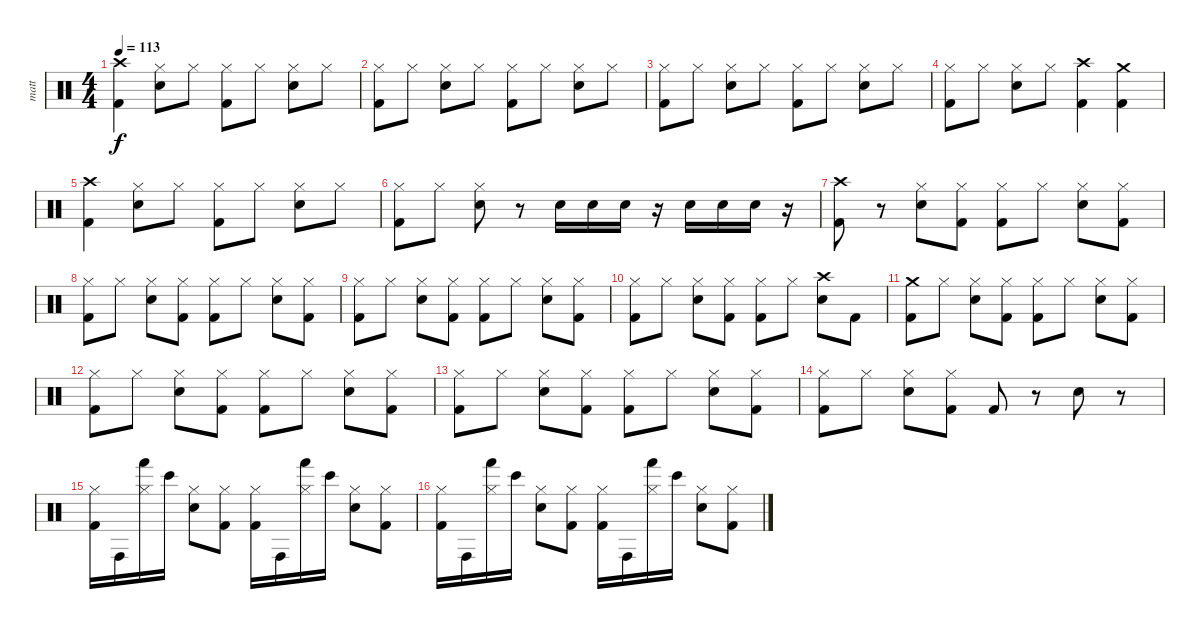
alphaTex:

\track ("matt" "matt") {instrument percussion}
\staff {score}
\articulation defaults
\ts (4 4)
\tempo 113
\clef neutral
\ks c
("Crash high (hit)" "Kick (hit) 2").4{dy f} ("Hi-Hat (closed)" "Electric Snare (hit)").8 "Hi-Hat (closed)".8 ("Hi-Hat (closed)" "Kick (hit) 2").8 "Hi-Hat (closed)".8 ("Hi-Hat (closed)" "Electric Snare (hit)").8 "Hi-Hat (closed)".8 |
("Hi-Hat (closed)" "Kick (hit) 2").8 "Hi-Hat (closed)".8 ("Hi-Hat (closed)" "Electric Snare (hit)").8 "Hi-Hat (closed)".8 ("Hi-Hat (closed)" "Kick (hit) 2").8 "Hi-Hat (closed)".8 ("Hi-Hat (closed)" "Electric Snare (hit)").8 "Hi-Hat (closed)".8 |
("Hi-Hat (closed)" "Kick (hit) 2").8 "Hi-Hat (closed)".8 ("Hi-Hat (closed)" "Electric Snare (hit)").8 "Hi-Hat (closed)".8 ("Hi-Hat (closed)" "Kick (hit) 2").8 "Hi-Hat (closed)".8 ("Hi-Hat (closed)" "Electric Snare (hit)").8 "Hi-Hat (closed)".8 |
("Hi-Hat (closed)" "Kick (hit) 2").8 "Hi-Hat (closed)".8 ("Hi-Hat (closed)" "Electric Snare (hit)").8 "Hi-Hat (closed)".8 ("Crash high (hit)" "Kick (hit) 2").4 ("Crash medium (hit)" "Kick (hit) 2").4 |
("Crash high (hit)" "Kick (hit) 2").4 ("Hi-Hat (closed)" "Electric Snare (hit)").8 "Hi-Hat (closed)".8 ("Hi-Hat (closed)" "Kick (hit) 2").8 "Hi-Hat (closed)".8 ("Hi-Hat (closed)" "Electric Snare (hit)").8 "Hi-Hat (closed)".8 |
("Hi-Hat (closed)" "Kick (hit) 2").8 "Hi-Hat (closed)".8 ("Hi-Hat (closed)" "Electric Snare (hit)").8 r.8 "Electric Snare (hit)".16 "Electric Snare (hit)".16 "Electric Snare (hit)".16 r.16 "Electric Snare (hit)".16 "Electric Snare (hit)".16 "Electric Snare (hit)".16 r.16 |
("Crash high (hit)" "Kick (hit) 2").8 r.8 ("Hi-Hat (closed)" "Electric Snare (hit)").8 ("Hi-Hat (closed)" "Kick (hit) 2").8 ("Hi-Hat (closed)" "Kick (hit) 2").8 "Hi-Hat (closed)".8 ("Hi-Hat (closed)" "Electric Snare (hit)").8 ("Hi-Hat (closed)" "Kick (hit) 2").8 |
("Hi-Hat (closed)" "Kick (hit) 2").8 "Hi-Hat (closed)".8 ("Hi-Hat (closed)" "Electric Snare (hit)").8 ("Hi-Hat (closed)" "Kick (hit) 2").8 ("Hi-Hat (closed)" "Kick (hit) 2").8 "Hi-Hat (closed)".8 ("Hi-Hat (closed)" "Electric Snare (hit)").8 ("Hi-Hat (closed)" "Kick (hit) 2").8 |
("Hi-Hat (closed)" "Kick (hit) 2").8 "Hi-Hat (closed)".8 ("Hi-Hat (closed)" "Electric Snare (hit)").8 ("Hi-Hat (closed)" "Kick (hit) 2").8 ("Hi-Hat (closed)" "Kick (hit) 2").8 "Hi-Hat (closed)".8 ("Hi-Hat (closed)" "Electric Snare (hit)").8 ("Hi-Hat (closed)" "Kick (hit) 2").8 |
("Hi-Hat (closed)" "Kick (hit) 2").8 "Hi-Hat (closed)".8 ("Hi-Hat (closed)" "Electric Snare (hit)").8 ("Hi-Hat (closed)" "Kick (hit) 2").8 ("Hi-Hat (closed)" "Kick (hit) 2").8 "Hi-Hat (closed)".8 ("Crash high (hit)" "Electric Snare (hit)").8 "Kick (hit) 2".8 |
("Crash medium (hit)" "Kick (hit) 2").8 "Hi-Hat (closed)".8 ("Hi-Hat (closed)" "Electric Snare (hit)").8 ("Hi-Hat (closed)" "Kick (hit) 2").8 ("Hi-Hat (closed)" "Kick (hit) 2").8 "Hi-Hat (closed)".8 ("Hi-Hat (closed)" "Electric Snare (hit)").8 ("Hi-Hat (closed)" "Kick (hit) 2").8 |
("Hi-Hat (closed)" "Kick (hit) 2").8 "Hi-Hat (closed)".8 ("Hi-Hat (closed)" "Electric Snare (hit)").8 ("Hi-Hat (closed)" "Kick (hit) 2").8 ("Hi-Hat (closed)" "Kick (hit) 2").8 "Hi-Hat (closed)".8 ("Hi-Hat (closed)" "Electric Snare (hit)").8 ("Hi-Hat (closed)" "Kick (hit) 2").8 |
("Hi-Hat (closed)" "Kick (hit) 2").8 "Hi-Hat (closed)".8 ("Hi-Hat (closed)" "Electric Snare (hit)").8 ("Hi-Hat (closed)" "Kick (hit) 2").8 ("Hi-Hat (closed)" "Kick (hit) 2").8 "Hi-Hat (closed)".8 ("Hi-Hat (closed)" "Electric Snare (hit)").8 ("Hi-Hat (closed)" "Kick (hit) 2").8 |
("Hi-Hat (closed)" "Kick (hit) 2").8 "Hi-Hat (closed)".8 ("Hi-Hat (closed)" "Electric Snare (hit)").8 ("Hi-Hat (closed)" "Kick (hit) 2").8 "Kick (hit) 2".8 r.8 "Electric Snare (hit)".8 r.8 |
("Hi-Hat (closed)" "Kick (hit) 2").16 "Conga high (hit)".16 ("Hi-Hat (closed)" "Hand (hit)").16 "Bongo High (hit)".16 ("Hi-Hat (closed)" "Electric Snare (hit)").8 ("Hi-Hat (closed)" "Kick (hit) 2").8 ("Hi-Hat (closed)" "Kick (hit) 2").16 "Conga high (hit)".16 ("Hi-Hat (closed)" "Hand (hit)").16 "Bongo High (hit)".16 ("Hi-Hat (closed)" "Electric Snare (hit)").8 ("Hi-Hat (closed)" "Kick (hit) 2").8 |
("Hi-Hat (closed)" "Kick (hit) 2").16 "Conga high (hit)".16 ("Hi-Hat (closed)" "Hand (hit)").16 "Bongo High (hit)".16 ("Hi-Hat (closed)" "Electric Snare (hit)").8 ("Hi-Hat (closed)" "Kick (hit) 2").8 ("Hi-Hat (closed)" "Kick (hit) 2").16 "Conga high (hit)".16 ("Hi-Hat (closed)" "Hand (hit)").16 "Bongo High (hit)".16 ("Hi-Hat (closed)" "Electric Snare (hit)").8 ("Hi-Hat (closed)" "Kick (hit) 2").8
